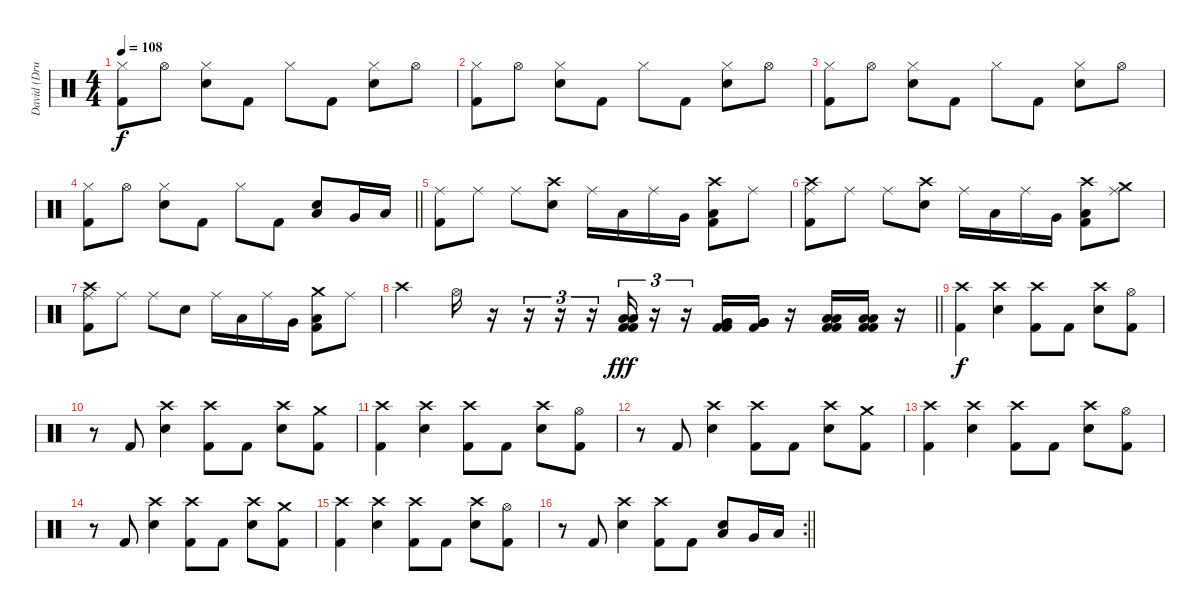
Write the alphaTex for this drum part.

\track ("David (Drum)" "David (Dru") {instrument percussion}
\staff {score}
\articulation defaults
\ts (4 4)
\tempo 108
\clef neutral
\ks c
("Hi-Hat (closed)" "Kick (hit) 2").8{dy f} "Hi-Hat (open)".8 ("Hi-Hat (closed)" "Electric Snare (hit)").8 "Kick (hit) 2".8 "Hi-Hat (closed)".8 "Kick (hit) 2".8 ("Hi-Hat (closed)" "Electric Snare (hit)").8 "Hi-Hat (open)".8 |
("Hi-Hat (closed)" "Kick (hit) 2").8 "Hi-Hat (open)".8 ("Hi-Hat (closed)" "Electric Snare (hit)").8 "Kick (hit) 2".8 "Hi-Hat (closed)".8 "Kick (hit) 2".8 ("Hi-Hat (closed)" "Electric Snare (hit)").8 "Hi-Hat (open)".8 |
("Hi-Hat (closed)" "Kick (hit) 2").8 "Hi-Hat (open)".8 ("Hi-Hat (closed)" "Electric Snare (hit)").8 "Kick (hit) 2".8 "Hi-Hat (closed)".8 "Kick (hit) 2".8 ("Hi-Hat (closed)" "Electric Snare (hit)").8 "Hi-Hat (open)".8 |
\barLineRight lightlight
("Hi-Hat (closed)" "Kick (hit) 2").8 "Hi-Hat (open)".8 ("Hi-Hat (closed)" "Electric Snare (hit)").8 "Kick (hit) 2".8 "Hi-Hat (closed)".8 "Kick (hit) 2".8 ("Low Tom (hit)" "Electric Snare (hit)").8 "Very Low Tom (hit)".16 "Low Floor Tom (hit)".16 |
\section ("" "")
("Ride (middle)" "Kick (hit) 2").8 "Ride (middle)".8 "Ride (middle)".8 ("Crash high (hit)" "Electric Snare (hit)").8 "Ride (middle)".16 "Low Tom (hit)".16 "Ride (middle)".16 "Very Low Tom (hit)".16 ("Crash high (hit)" "Low Floor Tom (hit)" "Kick (hit) 2").8 "Ride (middle)".8 |
("Crash high (hit)" "Ride (middle)" "Kick (hit) 2").8 "Ride (middle)".8 "Ride (middle)".8 ("Crash high (hit)" "Electric Snare (hit)").8 "Ride (middle)".16 "Low Tom (hit)".16 "Ride (middle)".16 "Very Low Tom (hit)".16 ("Crash high (hit)" "Low Floor Tom (hit)" "Kick (hit) 2").8 ("Crash medium (hit)" "Ride (middle)").8 |
("Crash high (hit)" "Ride (middle)" "Kick (hit) 2").8 "Ride (middle)".8 "Ride (middle)".8 "Electric Snare (hit)".8 "Ride (middle)".16 "Low Tom (hit)".16 "Ride (middle)".16 "Very Low Tom (hit)".16 ("Crash medium (hit)" "Low Floor Tom (hit)" "Kick (hit) 2").8 "Ride (middle)".8 |
\barLineRight lightlight "Crash high (hit)".4 "Hi-Hat (open)".16
r.16 r.16{tu (3 2)} r.16{tu (3 2)} r.16{tu (3 2)} ("Low Tom (hit)" "Low Tom (hit)" "Kick (hit) 2" "Kick (hit) 2").16{tu (3 2) dy fff} r.16{tu (3 2)} r.16{tu (3 2)} ("Very Low Tom (hit)" "Very Low Tom (hit)" "Kick (hit) 2" "Kick (hit) 2").16 ("Very Low Tom (hit)" "Very Low Tom (hit)" "Kick (hit) 2" "Very Low Tom (hit)").16 r.16 ("Low Floor Tom (hit)" "Low Floor Tom (hit)" "Kick (hit) 2" "Kick (hit) 2").16 ("Low Floor Tom (hit)" "Low Floor Tom (hit)" "Kick (hit) 2" "Kick (hit) 2").16 r.16 |
\section ("" "")
("Crash high (hit)" "Kick (hit) 2").4{dy f} ("Crash high (hit)" "Electric Snare (hit)").4 ("Crash high (hit)" "Kick (hit) 2").8 "Kick (hit) 2".8 ("Crash high (hit)" "Electric Snare (hit)").8 ("Hi-Hat (open)" "Kick (hit) 2").8 |
r.8 "Kick (hit) 2".8 ("Crash high (hit)" "Electric Snare (hit)").4 ("Crash high (hit)" "Kick (hit) 2").8 "Kick (hit) 2".8 ("Crash high (hit)" "Electric Snare (hit)").8 ("Crash medium (hit)" "Kick (hit) 2").8 |
("Crash high (hit)" "Kick (hit) 2").4 ("Crash high (hit)" "Electric Snare (hit)").4 ("Crash high (hit)" "Kick (hit) 2").8 "Kick (hit) 2".8 ("Crash high (hit)" "Electric Snare (hit)").8 ("Hi-Hat (open)" "Kick (hit) 2").8 |
r.8 "Kick (hit) 2".8 ("Crash high (hit)" "Electric Snare (hit)").4 ("Crash high (hit)" "Kick (hit) 2").8 "Kick (hit) 2".8 ("Crash high (hit)" "Electric Snare (hit)").8 ("Crash medium (hit)" "Kick (hit) 2").8 |
("Crash high (hit)" "Kick (hit) 2").4 ("Crash high (hit)" "Electric Snare (hit)").4 ("Crash high (hit)" "Kick (hit) 2").8 "Kick (hit) 2".8 ("Crash high (hit)" "Electric Snare (hit)").8 ("Hi-Hat (open)" "Kick (hit) 2").8 |
r.8 "Kick (hit) 2".8 ("Crash high (hit)" "Electric Snare (hit)").4 ("Crash high (hit)" "Kick (hit) 2").8 "Kick (hit) 2".8 ("Crash high (hit)" "Electric Snare (hit)").8 ("Crash medium (hit)" "Kick (hit) 2").8 |
("Crash high (hit)" "Kick (hit) 2").4 ("Crash high (hit)" "Electric Snare (hit)").4 ("Crash high (hit)" "Kick (hit) 2").8 "Kick (hit) 2".8 ("Crash high (hit)" "Electric Snare (hit)").8 ("Hi-Hat (open)" "Kick (hit) 2").8 |
\rc 2
\barLineRight lightlight
r.8 "Kick (hit) 2".8 ("Crash high (hit)" "Electric Snare (hit)").4 ("Crash high (hit)" "Kick (hit) 2").8 "Kick (hit) 2".8 ("Low Tom (hit)" "Electric Snare (hit)").8 "Very Low Tom (hit)".16 "Low Floor Tom (hit)".16
